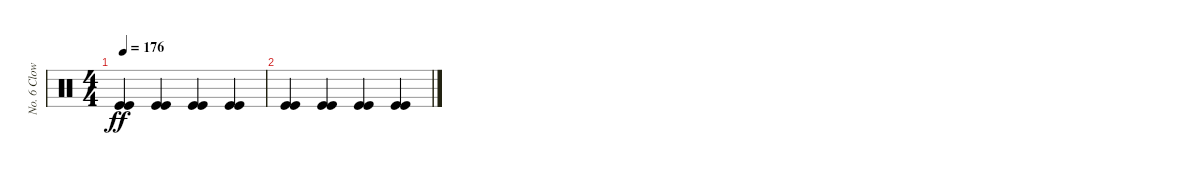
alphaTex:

\track ("No. 6 Clown" "No. 6 Clow") {instrument percussion}
\staff {score}
\articulation defaults
\ts (4 4)
\tempo 176
\clef neutral
\ks c
("Kick (hit)" "Kick (hit)").4{dy ff} ("Kick (hit)" "Kick (hit)").4 ("Kick (hit)" "Kick (hit)").4 ("Kick (hit)" "Kick (hit)").4 |
("Kick (hit)" "Kick (hit)").4 ("Kick (hit)" "Kick (hit)").4 ("Kick (hit)" "Kick (hit)").4 ("Kick (hit)" "Kick (hit)").4
